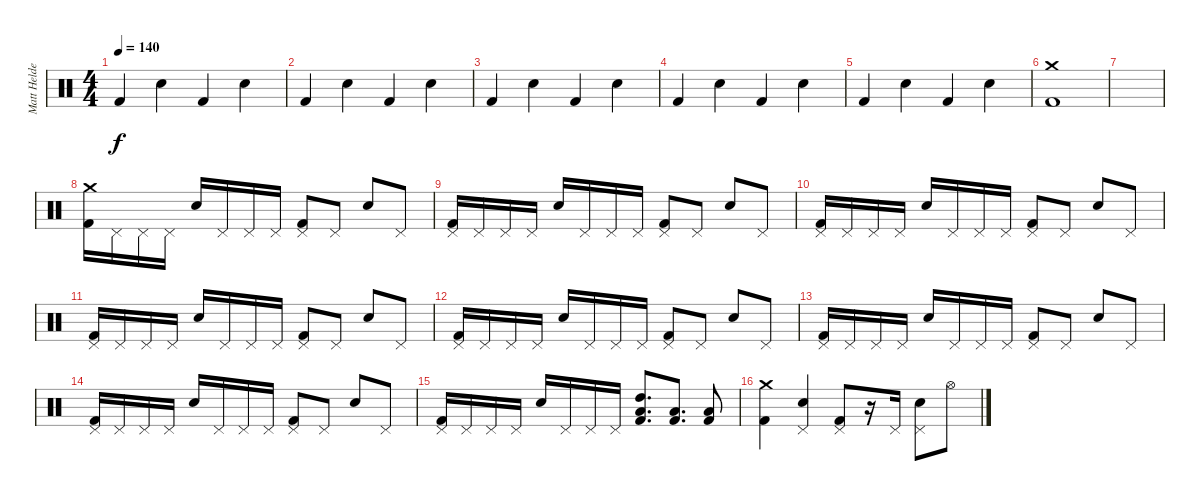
\track ("Matt Helders" "Matt Helde") {instrument percussion}
\staff {score}
\articulation defaults
\ts (4 4)
\tempo 140
\clef neutral
\ks c "Kick (hit) 2".4{dy f} "Snare (hit) 2".4 "Kick (hit) 2".4 "Snare (hit) 2".4
|
"Kick (hit) 2".4 "Snare (hit) 2".4 "Kick (hit) 2".4 "Snare (hit) 2".4 |
"Kick (hit) 2".4 "Snare (hit) 2".4 "Kick (hit) 2".4 "Snare (hit) 2".4 |
"Kick (hit) 2".4 "Snare (hit) 2".4 "Kick (hit) 2".4 "Snare (hit) 2".4 |
"Kick (hit) 2".4 "Snare (hit) 2".4 "Kick (hit) 2".4 "Snare (hit) 2".4 |
("Crash medium (hit)" "Kick (hit) 2").1 |
|
("Crash medium (hit)" "Kick (hit) 2").16 "Pedal Hi-Hat (hit)".16 "Pedal Hi-Hat (hit)".16 "Pedal Hi-Hat (hit)".16 "Snare (hit) 2".16 "Pedal Hi-Hat (hit)".16 "Pedal Hi-Hat (hit)".16 "Pedal Hi-Hat (hit)".16 ("Pedal Hi-Hat (hit)" "Kick (hit) 2").8 "Pedal Hi-Hat (hit)".8 "Snare (hit) 2".8 "Pedal Hi-Hat (hit)".8 |
("Pedal Hi-Hat (hit)" "Kick (hit) 2").16 "Pedal Hi-Hat (hit)".16 "Pedal Hi-Hat (hit)".16 "Pedal Hi-Hat (hit)".16 "Snare (hit) 2".16 "Pedal Hi-Hat (hit)".16 "Pedal Hi-Hat (hit)".16 "Pedal Hi-Hat (hit)".16 ("Pedal Hi-Hat (hit)" "Kick (hit) 2").8 "Pedal Hi-Hat (hit)".8 "Snare (hit) 2".8 "Pedal Hi-Hat (hit)".8 |
("Pedal Hi-Hat (hit)" "Kick (hit) 2").16 "Pedal Hi-Hat (hit)".16 "Pedal Hi-Hat (hit)".16 "Pedal Hi-Hat (hit)".16 "Snare (hit) 2".16 "Pedal Hi-Hat (hit)".16 "Pedal Hi-Hat (hit)".16 "Pedal Hi-Hat (hit)".16 ("Pedal Hi-Hat (hit)" "Kick (hit) 2").8 "Pedal Hi-Hat (hit)".8 "Snare (hit) 2".8 "Pedal Hi-Hat (hit)".8 |
("Pedal Hi-Hat (hit)" "Kick (hit) 2").16 "Pedal Hi-Hat (hit)".16 "Pedal Hi-Hat (hit)".16 "Pedal Hi-Hat (hit)".16 "Snare (hit) 2".16 "Pedal Hi-Hat (hit)".16 "Pedal Hi-Hat (hit)".16 "Pedal Hi-Hat (hit)".16 ("Pedal Hi-Hat (hit)" "Kick (hit) 2").8 "Pedal Hi-Hat (hit)".8 "Snare (hit) 2".8 "Pedal Hi-Hat (hit)".8 |
("Pedal Hi-Hat (hit)" "Kick (hit) 2").16 "Pedal Hi-Hat (hit)".16 "Pedal Hi-Hat (hit)".16 "Pedal Hi-Hat (hit)".16 "Snare (hit) 2".16 "Pedal Hi-Hat (hit)".16 "Pedal Hi-Hat (hit)".16 "Pedal Hi-Hat (hit)".16 ("Pedal Hi-Hat (hit)" "Kick (hit) 2").8 "Pedal Hi-Hat (hit)".8 "Snare (hit) 2".8 "Pedal Hi-Hat (hit)".8 |
("Pedal Hi-Hat (hit)" "Kick (hit) 2").16 "Pedal Hi-Hat (hit)".16 "Pedal Hi-Hat (hit)".16 "Pedal Hi-Hat (hit)".16 "Snare (hit) 2".16 "Pedal Hi-Hat (hit)".16 "Pedal Hi-Hat (hit)".16 "Pedal Hi-Hat (hit)".16 ("Pedal Hi-Hat (hit)" "Kick (hit) 2").8 "Pedal Hi-Hat (hit)".8 "Snare (hit) 2".8 "Pedal Hi-Hat (hit)".8 |
("Pedal Hi-Hat (hit)" "Kick (hit) 2").16 "Pedal Hi-Hat (hit)".16 "Pedal Hi-Hat (hit)".16 "Pedal Hi-Hat (hit)".16 "Snare (hit) 2".16 "Pedal Hi-Hat (hit)".16 "Pedal Hi-Hat (hit)".16 "Pedal Hi-Hat (hit)".16 ("Pedal Hi-Hat (hit)" "Kick (hit) 2").8 "Pedal Hi-Hat (hit)".8 "Snare (hit) 2".8 "Pedal Hi-Hat (hit)".8 |
("Pedal Hi-Hat (hit)" "Kick (hit) 2").16 "Pedal Hi-Hat (hit)".16 "Pedal Hi-Hat (hit)".16 "Pedal Hi-Hat (hit)".16 "Snare (hit) 2".16 "Pedal Hi-Hat (hit)".16 "Pedal Hi-Hat (hit)".16 "Pedal Hi-Hat (hit)".16 ("Low Tom (hit)" "High Tom (hit)" "Kick (hit) 2").8{d} ("Low Tom (hit)" "Kick (hit) 2").8{d} ("Low Tom (hit)" "Kick (hit) 2").8 |
("Crash medium (hit)" "Kick (hit) 2").4 ("Pedal Hi-Hat (hit)" "Snare (hit) 2").4 ("Pedal Hi-Hat (hit)" "Kick (hit) 2").8 r.16 "Pedal Hi-Hat (hit)".16 ("Pedal Hi-Hat (hit)" "Snare (hit) 2").8 "Hi-Hat (open)".8
